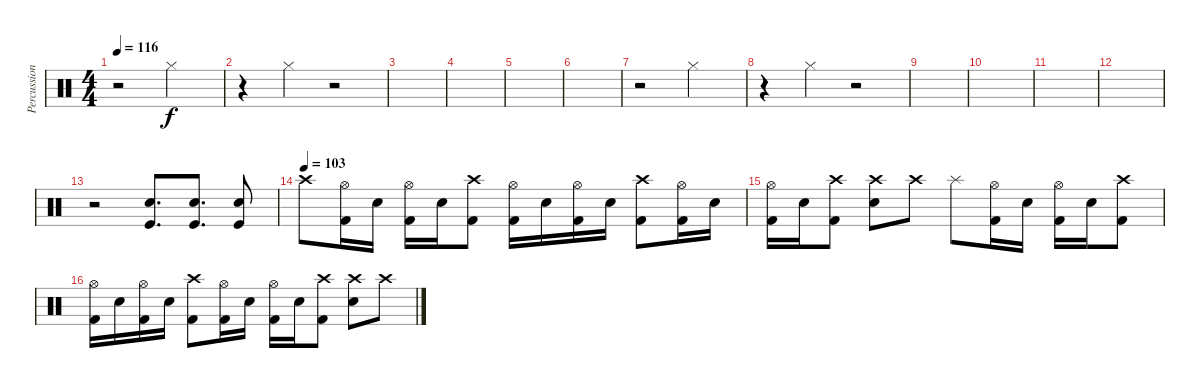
\track ("Percussion" "Percussion") {instrument percussion}
\staff {score}
\articulation defaults
\ts (4 4)
\tempo 116
\clef neutral
\ks c
r.2{dy f} "Hi-Hat (closed)".2 |
r.4 "Hi-Hat (closed)".4 r.2 |
|
|
|
|
r.2 "Hi-Hat (closed)".2 |
r.4 "Hi-Hat (closed)".4 r.2 |
|
|
|
|
r.2 ("Kick (hit)" "Snare (hit) 2").8{d} ("Kick (hit)" "Snare (hit) 2").8{d} ("Kick (hit)" "Snare (hit) 2").8 |
\tempo (103)
"Crash high (hit)".8 ("Kick (hit) 2" "Hi-Hat (open)").16 "Snare (hit) 2".16 ("Kick (hit) 2" "Hi-Hat (open)").16 "Snare (hit) 2".16 ("Kick (hit) 2" "Crash high (hit)").8 ("Kick (hit) 2" "Hi-Hat (open)").16 "Snare (hit) 2".16 ("Kick (hit) 2" "Hi-Hat (open)").16 "Snare (hit) 2".16 ("Kick (hit) 2" "Crash high (hit)").8 ("Kick (hit) 2" "Hi-Hat (open)").16 "Snare (hit) 2".16 |
("Kick (hit) 2" "Hi-Hat (open)").16 "Snare (hit) 2".16 ("Kick (hit) 2" "Crash high (hit)").8 ("Snare (hit) 2" "Crash high (hit)").8 "Crash high (hit)".8 "Splash (hit)".8 ("Kick (hit) 2" "Hi-Hat (open)").16 "Snare (hit) 2".16 ("Kick (hit) 2" "Hi-Hat (open)").16 "Snare (hit) 2".16 ("Kick (hit) 2" "Crash high (hit)").8 |
("Kick (hit) 2" "Hi-Hat (open)").16 "Snare (hit) 2".16 ("Kick (hit) 2" "Hi-Hat (open)").16 "Snare (hit) 2".16 ("Kick (hit) 2" "Crash high (hit)").8 ("Kick (hit) 2" "Hi-Hat (open)").16 "Snare (hit) 2".16 ("Kick (hit) 2" "Hi-Hat (open)").16 "Snare (hit) 2".16 ("Kick (hit) 2" "Crash high (hit)").8 ("Snare (hit) 2" "Crash high (hit)").8 "Crash high (hit)".8
